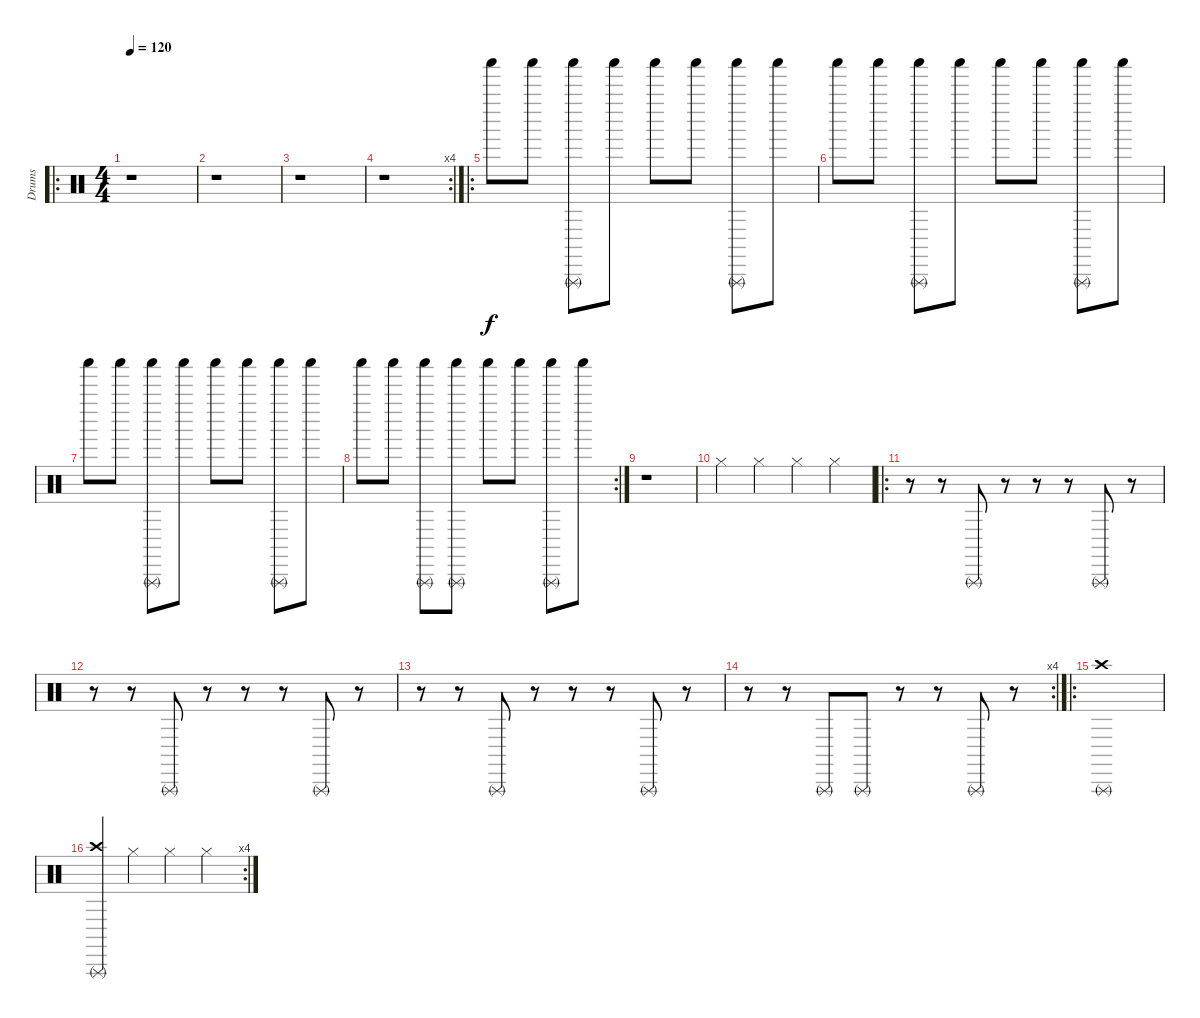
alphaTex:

\track ("Drums" "Drums") {instrument percussion}
\staff {score}
\articulation defaults
\ro
\ts (4 4)
\tempo 120
\clef neutral
\ks c
r.1{dy f} |
r.1 |
r.1 |
\rc 4
r.1 |
\ro "Shaker (hit)".8 "Shaker (hit)".8
("Shaker (hit)" "Triangle (rnute)").8 "Shaker (hit)".8 "Shaker (hit)".8 "Shaker (hit)".8 ("Shaker (hit)" "Triangle (rnute)").8 "Shaker (hit)".8 |
"Shaker (hit)".8 "Shaker (hit)".8 ("Shaker (hit)" "Triangle (rnute)").8 "Shaker (hit)".8 "Shaker (hit)".8 "Shaker (hit)".8 ("Shaker (hit)" "Triangle (rnute)").8 "Shaker (hit)".8 |
"Shaker (hit)".8 "Shaker (hit)".8 ("Shaker (hit)" "Triangle (rnute)").8 "Shaker (hit)".8 "Shaker (hit)".8 "Shaker (hit)".8 ("Shaker (hit)" "Triangle (rnute)").8 "Shaker (hit)".8 |
\rc 2 "Shaker (hit)".8 "Shaker (hit)".8
("Shaker (hit)" "Triangle (rnute)").8 ("Shaker (hit)" "Triangle (rnute)").8 "Shaker (hit)".8 "Shaker (hit)".8 ("Shaker (hit)" "Triangle (rnute)").8 "Shaker (hit)".8 |
r.1 |
"Hi-Hat (closed)".4 "Hi-Hat (closed)".4 "Hi-Hat (closed)".4 "Hi-Hat (closed)".4 |
\ro
r.8 r.8 "Triangle (rnute)".8 r.8 r.8 r.8 "Triangle (rnute)".8 r.8 |
r.8 r.8 "Triangle (rnute)".8 r.8 r.8 r.8 "Triangle (rnute)".8 r.8 |
r.8 r.8 "Triangle (rnute)".8 r.8 r.8 r.8 "Triangle (rnute)".8 r.8 |
\rc 4
r.8 r.8 "Triangle (rnute)".8 "Triangle (rnute)".8 r.8 r.8 "Triangle (rnute)".8 r.8 |
\ro
("Crash high (hit)" "Triangle (rnute)").1 |
\rc 4
("Crash high (hit)" "Triangle (rnute)").4 "Hi-Hat (closed)".4 "Hi-Hat (closed)".4 "Hi-Hat (closed)".4
